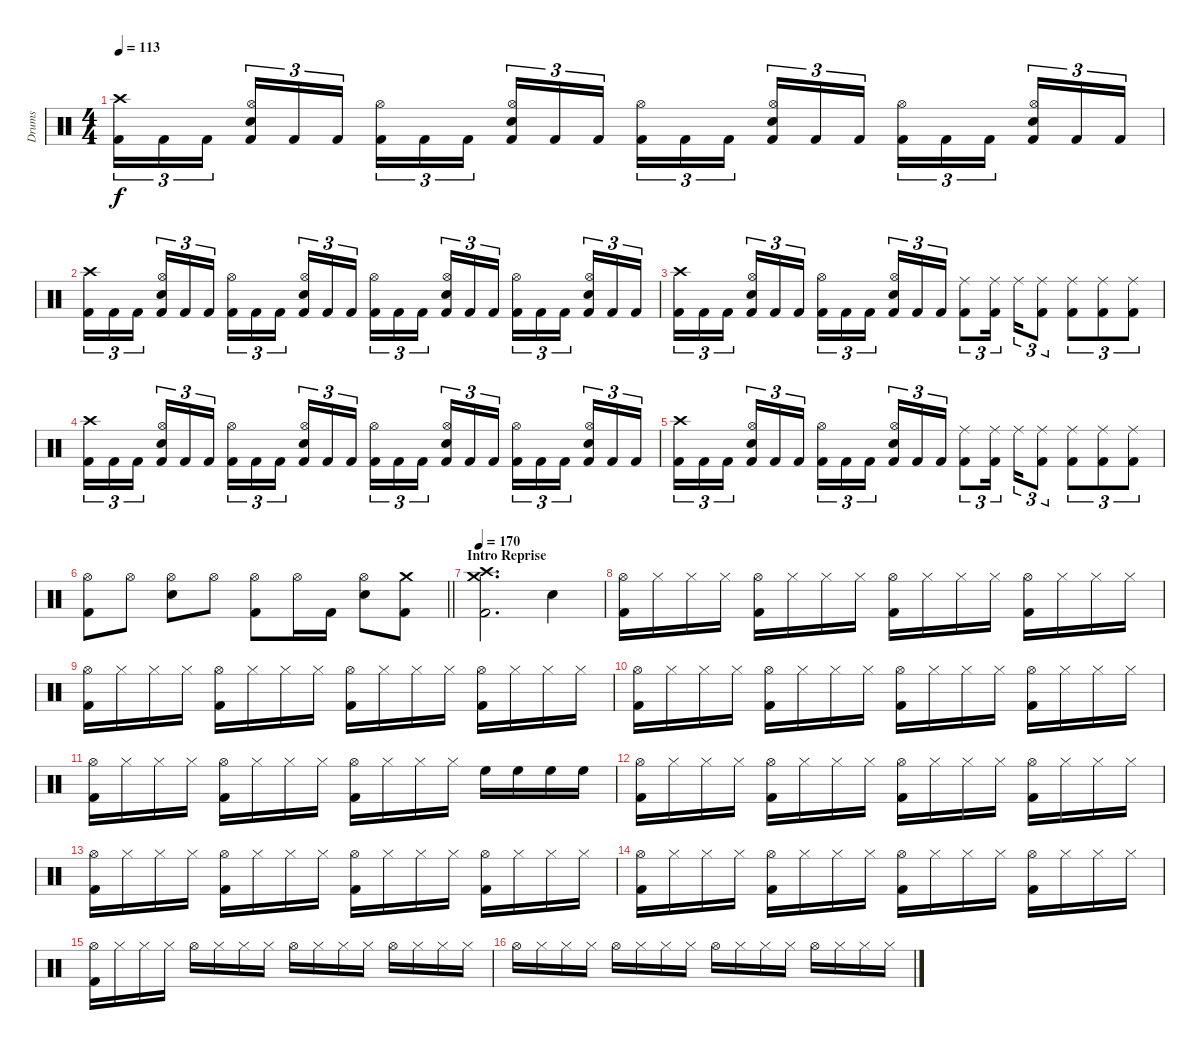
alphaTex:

\track ("Drums" "Drums") {instrument percussion}
\staff {score}
\articulation defaults
\ts (4 4)
\tempo 113
\clef neutral
\ks c
("Crash high (hit)" "Kick (hit) 2").16{tu (3 2) dy f} "Kick (hit) 2".16{tu (3 2)} "Kick (hit) 2".16{tu (3 2) beam splitsecondary} ("Hi-Hat (open)" "Snare (hit) 2" "Kick (hit) 2").16{tu (3 2)} "Kick (hit) 2".16{tu (3 2)} "Kick (hit) 2".16{tu (3 2)} ("Hi-Hat (open)" "Kick (hit) 2").16{tu (3 2)} "Kick (hit) 2".16{tu (3 2)} "Kick (hit) 2".16{tu (3 2) beam splitsecondary} ("Hi-Hat (open)" "Snare (hit) 2" "Kick (hit) 2").16{tu (3 2)} "Kick (hit) 2".16{tu (3 2)} "Kick (hit) 2".16{tu (3 2)} ("Hi-Hat (open)" "Kick (hit) 2").16{tu (3 2)} "Kick (hit) 2".16{tu (3 2)} "Kick (hit) 2".16{tu (3 2) beam splitsecondary} ("Hi-Hat (open)" "Snare (hit) 2" "Kick (hit) 2").16{tu (3 2)} "Kick (hit) 2".16{tu (3 2)} "Kick (hit) 2".16{tu (3 2)} ("Hi-Hat (open)" "Kick (hit) 2").16{tu (3 2)} "Kick (hit) 2".16{tu (3 2)} "Kick (hit) 2".16{tu (3 2) beam splitsecondary} ("Hi-Hat (open)" "Snare (hit) 2" "Kick (hit) 2").16{tu (3 2)} "Kick (hit) 2".16{tu (3 2)} "Kick (hit) 2".16{tu (3 2)} |
("Crash high (hit)" "Kick (hit) 2").16{tu (3 2)} "Kick (hit) 2".16{tu (3 2)} "Kick (hit) 2".16{tu (3 2) beam splitsecondary} ("Hi-Hat (open)" "Snare (hit) 2" "Kick (hit) 2").16{tu (3 2)} "Kick (hit) 2".16{tu (3 2)} "Kick (hit) 2".16{tu (3 2)} ("Hi-Hat (open)" "Kick (hit) 2").16{tu (3 2)} "Kick (hit) 2".16{tu (3 2)} "Kick (hit) 2".16{tu (3 2) beam splitsecondary} ("Hi-Hat (open)" "Snare (hit) 2" "Kick (hit) 2").16{tu (3 2)} "Kick (hit) 2".16{tu (3 2)} "Kick (hit) 2".16{tu (3 2)} ("Hi-Hat (open)" "Kick (hit) 2").16{tu (3 2)} "Kick (hit) 2".16{tu (3 2)} "Kick (hit) 2".16{tu (3 2) beam splitsecondary} ("Hi-Hat (open)" "Snare (hit) 2" "Kick (hit) 2").16{tu (3 2)} "Kick (hit) 2".16{tu (3 2)} "Kick (hit) 2".16{tu (3 2)} ("Hi-Hat (open)" "Kick (hit) 2").16{tu (3 2)} "Kick (hit) 2".16{tu (3 2)} "Kick (hit) 2".16{tu (3 2) beam splitsecondary} ("Hi-Hat (open)" "Snare (hit) 2" "Kick (hit) 2").16{tu (3 2)} "Kick (hit) 2".16{tu (3 2)} "Kick (hit) 2".16{tu (3 2)} |
("Crash high (hit)" "Kick (hit) 2").16{tu (3 2)} "Kick (hit) 2".16{tu (3 2)} "Kick (hit) 2".16{tu (3 2) beam splitsecondary} ("Hi-Hat (open)" "Snare (hit) 2" "Kick (hit) 2").16{tu (3 2)} "Kick (hit) 2".16{tu (3 2)} "Kick (hit) 2".16{tu (3 2)} ("Hi-Hat (open)" "Kick (hit) 2").16{tu (3 2)} "Kick (hit) 2".16{tu (3 2)} "Kick (hit) 2".16{tu (3 2) beam splitsecondary} ("Hi-Hat (open)" "Snare (hit) 2" "Kick (hit) 2").16{tu (3 2)} "Kick (hit) 2".16{tu (3 2)} "Kick (hit) 2".16{tu (3 2)} ("Ride (middle)" "Kick (hit) 2").8{tu (3 2)} ("Ride (middle)" "Kick (hit) 2").16{tu (3 2) beam splitsecondary} "Ride (middle)".16{tu (3 2)} ("Ride (middle)" "Kick (hit) 2").8{tu (3 2)} ("Ride (middle)" "Kick (hit) 2").8{tu (3 2)} ("Ride (middle)" "Kick (hit) 2").8{tu (3 2)} ("Ride (middle)" "Kick (hit) 2").8{tu (3 2)} |
("Crash high (hit)" "Kick (hit) 2").16{tu (3 2)} "Kick (hit) 2".16{tu (3 2)} "Kick (hit) 2".16{tu (3 2) beam splitsecondary} ("Hi-Hat (open)" "Snare (hit) 2" "Kick (hit) 2").16{tu (3 2)} "Kick (hit) 2".16{tu (3 2)} "Kick (hit) 2".16{tu (3 2)} ("Hi-Hat (open)" "Kick (hit) 2").16{tu (3 2)} "Kick (hit) 2".16{tu (3 2)} "Kick (hit) 2".16{tu (3 2) beam splitsecondary} ("Hi-Hat (open)" "Snare (hit) 2" "Kick (hit) 2").16{tu (3 2)} "Kick (hit) 2".16{tu (3 2)} "Kick (hit) 2".16{tu (3 2)} ("Hi-Hat (open)" "Kick (hit) 2").16{tu (3 2)} "Kick (hit) 2".16{tu (3 2)} "Kick (hit) 2".16{tu (3 2) beam splitsecondary} ("Hi-Hat (open)" "Snare (hit) 2" "Kick (hit) 2").16{tu (3 2)} "Kick (hit) 2".16{tu (3 2)} "Kick (hit) 2".16{tu (3 2)} ("Hi-Hat (open)" "Kick (hit) 2").16{tu (3 2)} "Kick (hit) 2".16{tu (3 2)} "Kick (hit) 2".16{tu (3 2) beam splitsecondary} ("Hi-Hat (open)" "Snare (hit) 2" "Kick (hit) 2").16{tu (3 2)} "Kick (hit) 2".16{tu (3 2)} "Kick (hit) 2".16{tu (3 2)} |
("Crash high (hit)" "Kick (hit) 2").16{tu (3 2)} "Kick (hit) 2".16{tu (3 2)} "Kick (hit) 2".16{tu (3 2) beam splitsecondary} ("Hi-Hat (open)" "Snare (hit) 2" "Kick (hit) 2").16{tu (3 2)} "Kick (hit) 2".16{tu (3 2)} "Kick (hit) 2".16{tu (3 2)} ("Hi-Hat (open)" "Kick (hit) 2").16{tu (3 2)} "Kick (hit) 2".16{tu (3 2)} "Kick (hit) 2".16{tu (3 2) beam splitsecondary} ("Hi-Hat (open)" "Snare (hit) 2" "Kick (hit) 2").16{tu (3 2)} "Kick (hit) 2".16{tu (3 2)} "Kick (hit) 2".16{tu (3 2)} ("Ride (middle)" "Kick (hit) 2").8{tu (3 2)} ("Ride (middle)" "Kick (hit) 2").16{tu (3 2) beam splitsecondary} "Ride (middle)".16{tu (3 2)} ("Ride (middle)" "Kick (hit) 2").8{tu (3 2)} ("Ride (middle)" "Kick (hit) 2").8{tu (3 2)} ("Ride (middle)" "Kick (hit) 2").8{tu (3 2)} ("Ride (middle)" "Kick (hit) 2").8{tu (3 2)} |
\barLineRight lightlight
("Hi-Hat (open)" "Kick (hit) 2").8 "Hi-Hat (open)".8 ("Hi-Hat (open)" "Snare (hit) 2").8 "Hi-Hat (open)".8 ("Hi-Hat (open)" "Kick (hit) 2").8 "Hi-Hat (open)".16 "Kick (hit) 2".16 ("Hi-Hat (open)" "Snare (hit) 2").8 ("Crash medium (hit)" "Kick (hit) 2").8 |
\section ("" "Intro Reprise")
\tempo 170
("Crash medium (hit)" "Crash high (hit)" "Kick (hit) 2").2{d} "Snare (hit) 2".4 |
("Hi-Hat (open)" "Kick (hit) 2").16 "Hi-Hat (closed)".16 "Hi-Hat (closed)".16 "Hi-Hat (closed)".16 ("Hi-Hat (open)" "Kick (hit) 2").16 "Hi-Hat (closed)".16 "Hi-Hat (closed)".16 "Hi-Hat (closed)".16 ("Hi-Hat (open)" "Kick (hit) 2").16 "Hi-Hat (closed)".16 "Hi-Hat (closed)".16 "Hi-Hat (closed)".16 ("Hi-Hat (open)" "Kick (hit) 2").16 "Hi-Hat (closed)".16 "Hi-Hat (closed)".16 "Hi-Hat (closed)".16 |
("Hi-Hat (open)" "Kick (hit) 2").16 "Hi-Hat (closed)".16 "Hi-Hat (closed)".16 "Hi-Hat (closed)".16 ("Hi-Hat (open)" "Kick (hit) 2").16 "Hi-Hat (closed)".16 "Hi-Hat (closed)".16 "Hi-Hat (closed)".16 ("Hi-Hat (open)" "Kick (hit) 2").16 "Hi-Hat (closed)".16 "Hi-Hat (closed)".16 "Hi-Hat (closed)".16 ("Hi-Hat (open)" "Kick (hit) 2").16 "Hi-Hat (closed)".16 "Hi-Hat (closed)".16 "Hi-Hat (closed)".16 |
("Hi-Hat (open)" "Kick (hit) 2").16 "Hi-Hat (closed)".16 "Hi-Hat (closed)".16 "Hi-Hat (closed)".16 ("Hi-Hat (open)" "Kick (hit) 2").16 "Hi-Hat (closed)".16 "Hi-Hat (closed)".16 "Hi-Hat (closed)".16 ("Hi-Hat (open)" "Kick (hit) 2").16 "Hi-Hat (closed)".16 "Hi-Hat (closed)".16 "Hi-Hat (closed)".16 ("Hi-Hat (open)" "Kick (hit) 2").16 "Hi-Hat (closed)".16 "Hi-Hat (closed)".16 "Hi-Hat (closed)".16 |
("Hi-Hat (open)" "Kick (hit) 2").16 "Hi-Hat (closed)".16 "Hi-Hat (closed)".16 "Hi-Hat (closed)".16 ("Hi-Hat (open)" "Kick (hit) 2").16 "Hi-Hat (closed)".16 "Hi-Hat (closed)".16 "Hi-Hat (closed)".16 ("Hi-Hat (open)" "Kick (hit) 2").16 "Hi-Hat (closed)".16 "Hi-Hat (closed)".16 "Hi-Hat (closed)".16 "High Floor Tom (hit)".16 "High Floor Tom (hit)".16 "High Floor Tom (hit)".16 "High Floor Tom (hit)".16 |
("Hi-Hat (open)" "Kick (hit) 2").16 "Hi-Hat (closed)".16 "Hi-Hat (closed)".16 "Hi-Hat (closed)".16 ("Hi-Hat (open)" "Kick (hit) 2").16 "Hi-Hat (closed)".16 "Hi-Hat (closed)".16 "Hi-Hat (closed)".16 ("Hi-Hat (open)" "Kick (hit) 2").16 "Hi-Hat (closed)".16 "Hi-Hat (closed)".16 "Hi-Hat (closed)".16 ("Hi-Hat (open)" "Kick (hit) 2").16 "Hi-Hat (closed)".16 "Hi-Hat (closed)".16 "Hi-Hat (closed)".16 |
("Hi-Hat (open)" "Kick (hit) 2").16 "Hi-Hat (closed)".16 "Hi-Hat (closed)".16 "Hi-Hat (closed)".16 ("Hi-Hat (open)" "Kick (hit) 2").16 "Hi-Hat (closed)".16 "Hi-Hat (closed)".16 "Hi-Hat (closed)".16 ("Hi-Hat (open)" "Kick (hit) 2").16 "Hi-Hat (closed)".16 "Hi-Hat (closed)".16 "Hi-Hat (closed)".16 ("Hi-Hat (open)" "Kick (hit) 2").16 "Hi-Hat (closed)".16 "Hi-Hat (closed)".16 "Hi-Hat (closed)".16 |
("Hi-Hat (open)" "Kick (hit) 2").16 "Hi-Hat (closed)".16 "Hi-Hat (closed)".16 "Hi-Hat (closed)".16 ("Hi-Hat (open)" "Kick (hit) 2").16 "Hi-Hat (closed)".16 "Hi-Hat (closed)".16 "Hi-Hat (closed)".16 ("Hi-Hat (open)" "Kick (hit) 2").16 "Hi-Hat (closed)".16 "Hi-Hat (closed)".16 "Hi-Hat (closed)".16 ("Hi-Hat (open)" "Kick (hit) 2").16 "Hi-Hat (closed)".16 "Hi-Hat (closed)".16 "Hi-Hat (closed)".16 |
("Hi-Hat (open)" "Kick (hit) 2").16 "Hi-Hat (closed)".16 "Hi-Hat (closed)".16 "Hi-Hat (closed)".16 "Hi-Hat (open)".16 "Hi-Hat (closed)".16 "Hi-Hat (closed)".16 "Hi-Hat (closed)".16 "Hi-Hat (open)".16 "Hi-Hat (closed)".16 "Hi-Hat (closed)".16 "Hi-Hat (closed)".16 "Hi-Hat (open)".16 "Hi-Hat (closed)".16 "Hi-Hat (closed)".16 "Hi-Hat (closed)".16 |
"Hi-Hat (open)".16 "Hi-Hat (closed)".16 "Hi-Hat (closed)".16 "Hi-Hat (closed)".16 "Hi-Hat (open)".16 "Hi-Hat (closed)".16 "Hi-Hat (closed)".16 "Hi-Hat (closed)".16 "Hi-Hat (open)".16 "Hi-Hat (closed)".16 "Hi-Hat (closed)".16 "Hi-Hat (closed)".16 "Hi-Hat (open)".16 "Hi-Hat (closed)".16 "Hi-Hat (closed)".16 "Hi-Hat (closed)".16
